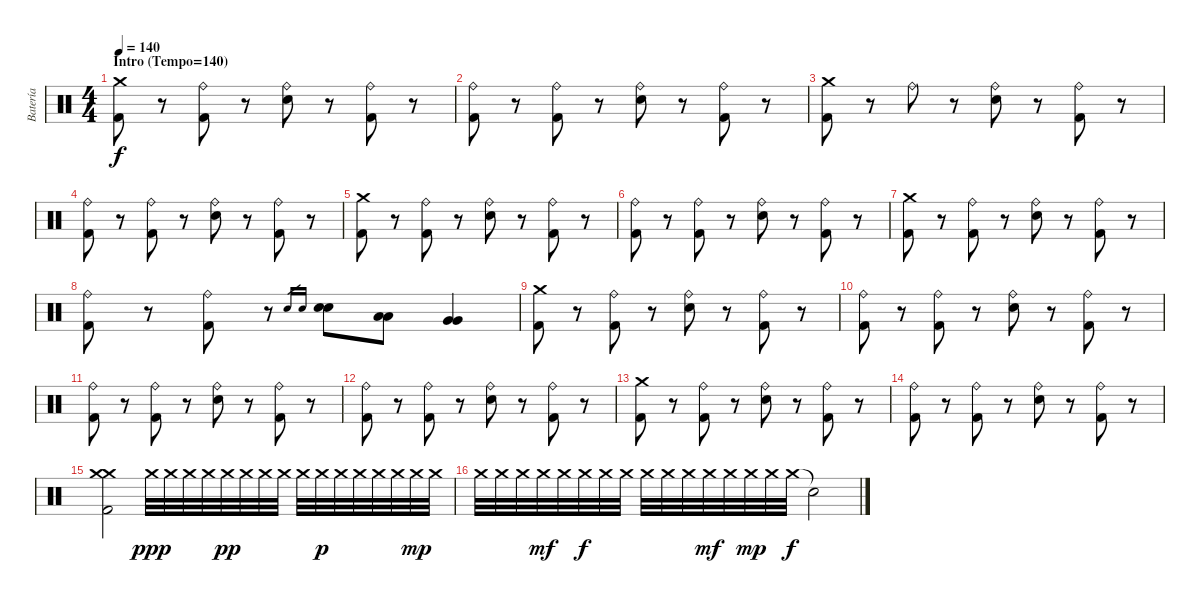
\track ("Batería" "Batería") {instrument percussion}
\staff {score}
\articulation defaults
\ts (4 4)
\section ("" "Intro (Tempo=140)")
\tempo 140
\clef neutral
\ks c
("Crash medium (hit)" "Kick (hit) 2").8{dy f} r.8 ("Ride (bell)" "Kick (hit) 2").8 r.8 ("Ride (bell)" "Snare (hit) 2").8 r.8 ("Ride (bell)" "Kick (hit) 2").8 r.8 |
("Ride (bell)" "Kick (hit) 2").8 r.8 ("Ride (bell)" "Kick (hit) 2").8 r.8 ("Ride (bell)" "Snare (hit) 2").8 r.8 ("Ride (bell)" "Kick (hit) 2").8 r.8 |
("Crash medium (hit)" "Kick (hit) 2").8 r.8 "Ride (bell)".8 r.8 ("Ride (bell)" "Snare (hit) 2").8 r.8 ("Ride (bell)" "Kick (hit) 2").8 r.8 |
("Ride (bell)" "Kick (hit) 2").8 r.8 ("Ride (bell)" "Kick (hit) 2").8 r.8 ("Ride (bell)" "Snare (hit) 2").8 r.8 ("Ride (bell)" "Kick (hit) 2").8 r.8 |
("Crash medium (hit)" "Kick (hit) 2").8 r.8 ("Ride (bell)" "Kick (hit) 2").8 r.8 ("Ride (bell)" "Snare (hit) 2").8 r.8 ("Ride (bell)" "Kick (hit) 2").8 r.8 |
("Ride (bell)" "Kick (hit) 2").8 r.8 ("Ride (bell)" "Kick (hit) 2").8 r.8 ("Ride (bell)" "Snare (hit) 2").8 r.8 ("Ride (bell)" "Kick (hit) 2").8 r.8 |
("Crash medium (hit)" "Kick (hit) 2").8 r.8 ("Ride (bell)" "Kick (hit) 2").8 r.8 ("Ride (bell)" "Snare (hit) 2").8 r.8 ("Ride (bell)" "Kick (hit) 2").8 r.8 |
("Ride (bell)" "Kick (hit) 2").8 r.8 ("Ride (bell)" "Kick (hit) 2").8 r.8 "Snare (hit) 2".16{gr} "Snare (hit) 2".16{gr} ("Snare (hit) 2" "Snare (hit) 2").8 ("Low Tom (hit)" "Low Tom (hit)").8 ("Very Low Tom (hit)" "Very Low Tom (hit)").4 |
("Crash medium (hit)" "Kick (hit) 2").8 r.8 ("Ride (bell)" "Kick (hit) 2").8 r.8 ("Ride (bell)" "Snare (hit) 2").8 r.8 ("Ride (bell)" "Kick (hit) 2").8 r.8 |
("Ride (bell)" "Kick (hit) 2").8 r.8 ("Ride (bell)" "Kick (hit) 2").8 r.8 ("Ride (bell)" "Snare (hit) 2").8 r.8 ("Ride (bell)" "Kick (hit) 2").8 r.8 |
("Ride (bell)" "Kick (hit) 2").8 r.8 ("Ride (bell)" "Kick (hit) 2").8 r.8 ("Ride (bell)" "Snare (hit) 2").8 r.8 ("Ride (bell)" "Kick (hit) 2").8 r.8 |
("Ride (bell)" "Kick (hit) 2").8 r.8 ("Ride (bell)" "Kick (hit) 2").8 r.8 ("Ride (bell)" "Snare (hit) 2").8 r.8 ("Ride (bell)" "Kick (hit) 2").8 r.8 |
("Crash medium (hit)" "Kick (hit) 2").8 r.8 ("Ride (bell)" "Kick (hit) 2").8 r.8 ("Ride (bell)" "Snare (hit) 2").8 r.8 ("Ride (bell)" "Kick (hit) 2").8 r.8 |
("Ride (bell)" "Kick (hit) 2").8 r.8 ("Ride (bell)" "Kick (hit) 2").8 r.8 ("Ride (bell)" "Snare (hit) 2").8 r.8 ("Ride (bell)" "Kick (hit) 2").8 r.8 |
("Crash medium (hit)" "Crash medium (hit)" "Kick (hit) 2").2 "Crash medium (hit)".32{dy ppp} "Crash medium (hit)".32 "Crash medium (hit)".32 "Crash medium (hit)".32 "Crash medium (hit)".32{dy pp} "Crash medium (hit)".32 "Crash medium (hit)".32 "Crash medium (hit)".32 "Crash medium (hit)".32 "Crash medium (hit)".32{dy p} "Crash medium (hit)".32 "Crash medium (hit)".32 "Crash medium (hit)".32 "Crash medium (hit)".32 "Crash medium (hit)".32{dy mp} "Crash medium (hit)".32 |
"Crash medium (hit)".32 "Crash medium (hit)".32 "Crash medium (hit)".32 "Crash medium (hit)".32{dy mf} "Crash medium (hit)".32 "Crash medium (hit)".32{dy f} "Crash medium (hit)".32 "Crash medium (hit)".32 "Crash medium (hit)".32 "Crash medium (hit)".32 "Crash medium (hit)".32 "Crash medium (hit)".32{dy mf} "Crash medium (hit)".32 "Crash medium (hit)".32{dy mp} "Crash medium (hit)".32 "Crash medium (hit)".32{dy f} "Snare (hit)"{t}.2
